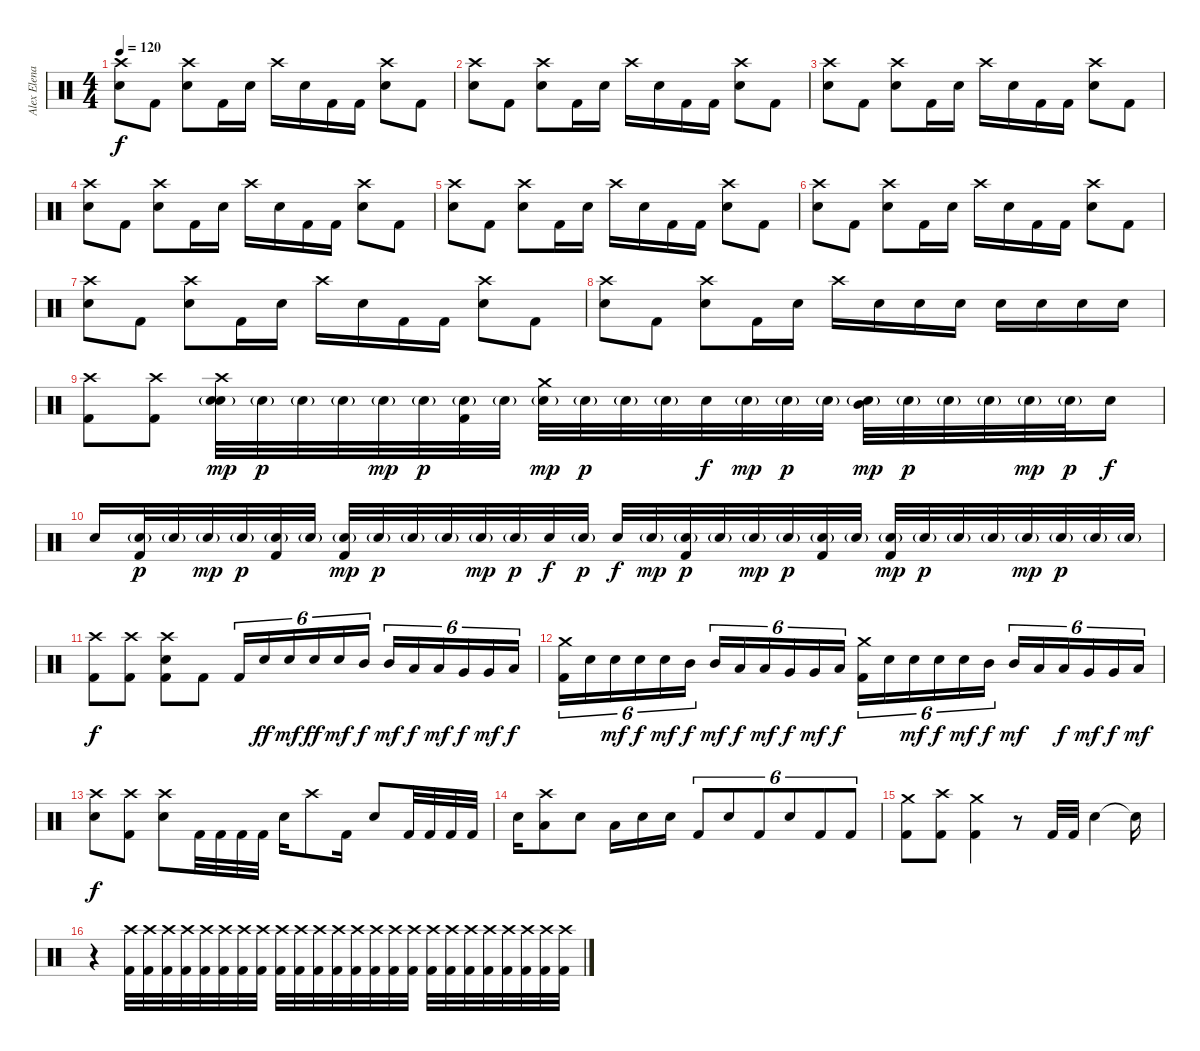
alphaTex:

\track ("Alex Elena (Percussion)" "Alex Elena") {instrument percussion}
\staff {score}
\articulation defaults
\ts (4 4)
\tempo 120
\clef neutral
\ks c
("Crash high (hit)" "Snare (hit) 2").8{dy f} "Kick (hit) 2".8 ("Crash high (hit)" "Snare (hit) 2").8 "Kick (hit) 2".16 "Snare (hit) 2".16 "Crash high (hit)".16 "Snare (hit) 2".16 "Kick (hit) 2".16 "Kick (hit) 2".16 ("Crash high (hit)" "Snare (hit) 2").8 "Kick (hit) 2".8 |
("Crash high (hit)" "Snare (hit) 2").8 "Kick (hit) 2".8 ("Crash high (hit)" "Snare (hit) 2").8 "Kick (hit) 2".16 "Snare (hit) 2".16 "Crash high (hit)".16 "Snare (hit) 2".16 "Kick (hit) 2".16 "Kick (hit) 2".16 ("Crash high (hit)" "Snare (hit) 2").8 "Kick (hit) 2".8 |
("Crash high (hit)" "Snare (hit) 2").8 "Kick (hit) 2".8 ("Crash high (hit)" "Snare (hit) 2").8 "Kick (hit) 2".16 "Snare (hit) 2".16 "Crash high (hit)".16 "Snare (hit) 2".16 "Kick (hit) 2".16 "Kick (hit) 2".16 ("Crash high (hit)" "Snare (hit) 2").8 "Kick (hit) 2".8 |
("Crash high (hit)" "Snare (hit) 2").8 "Kick (hit) 2".8 ("Crash high (hit)" "Snare (hit) 2").8 "Kick (hit) 2".16 "Snare (hit) 2".16 "Crash high (hit)".16 "Snare (hit) 2".16 "Kick (hit) 2".16 "Kick (hit) 2".16 ("Crash high (hit)" "Snare (hit) 2").8 "Kick (hit) 2".8 |
("Crash high (hit)" "Snare (hit) 2").8 "Kick (hit) 2".8 ("Crash high (hit)" "Snare (hit) 2").8 "Kick (hit) 2".16 "Snare (hit) 2".16 "Crash high (hit)".16 "Snare (hit) 2".16 "Kick (hit) 2".16 "Kick (hit) 2".16 ("Crash high (hit)" "Snare (hit) 2").8 "Kick (hit) 2".8 |
("Crash high (hit)" "Snare (hit) 2").8 "Kick (hit) 2".8 ("Crash high (hit)" "Snare (hit) 2").8 "Kick (hit) 2".16 "Snare (hit) 2".16 "Crash high (hit)".16 "Snare (hit) 2".16 "Kick (hit) 2".16 "Kick (hit) 2".16 ("Crash high (hit)" "Snare (hit) 2").8 "Kick (hit) 2".8 |
("Crash high (hit)" "Snare (hit) 2").8 "Kick (hit) 2".8 ("Crash high (hit)" "Snare (hit) 2").8 "Kick (hit) 2".16 "Snare (hit) 2".16 "Crash high (hit)".16 "Snare (hit) 2".16 "Kick (hit) 2".16 "Kick (hit) 2".16 ("Crash high (hit)" "Snare (hit) 2").8 "Kick (hit) 2".8 |
("Crash high (hit)" "Snare (hit) 2").8 "Kick (hit) 2".8 ("Crash high (hit)" "Snare (hit) 2").8 "Kick (hit) 2".16 "Snare (hit) 2".16 "Crash high (hit)".16 "Snare (hit) 2".16 "Snare (hit) 2".16 "Snare (hit) 2".16 "Snare (hit) 2".16 "Snare (hit) 2".16 "Snare (hit) 2".16 "Snare (hit) 2".16 |
("Crash high (hit)" "Kick (hit) 2").8 ("Crash high (hit)" "Kick (hit) 2").8 ("Crash high (hit)" "Snare (hit) 2"{g} "Snare (hit) 2").32{dy mp} "Snare (hit) 2"{g}.32{dy p} "Snare (hit) 2"{g}.32 "Snare (hit) 2"{g}.32 "Snare (hit) 2"{g}.32{dy mp} "Snare (hit) 2"{g}.32{dy p} ("Snare (hit) 2"{g} "Kick (hit) 2").32 "Snare (hit) 2"{g}.32 ("Crash medium (hit)" "Snare (hit) 2"{g}).32{dy mp} "Snare (hit) 2"{g}.32{dy p} "Snare (hit) 2"{g}.32 "Snare (hit) 2"{g}.32 "Snare (hit) 2".32{dy f} "Snare (hit) 2"{g}.32{dy mp} "Snare (hit) 2"{g}.32{dy p} "Snare (hit) 2"{g}.32 ("Snare (hit) 2"{g} "Mid Tom (hit)").32{dy mp} "Snare (hit) 2"{g}.32{dy p} "Snare (hit) 2"{g}.32 "Snare (hit) 2"{g}.32 "Snare (hit) 2"{g}.32{dy mp} "Snare (hit) 2"{g}.32{dy p} "Snare (hit) 2".16{dy f} |
"Snare (hit) 2".16 ("Snare (hit) 2"{g} "Kick (hit) 2").32{dy p} "Snare (hit) 2"{g}.32 "Snare (hit) 2"{g}.32{dy mp} "Snare (hit) 2"{g}.32{dy p} ("Snare (hit) 2"{g} "Kick (hit) 2").32 "Snare (hit) 2"{g}.32 ("Snare (hit) 2"{g} "Kick (hit) 2").32{dy mp} "Snare (hit) 2"{g}.32{dy p} "Snare (hit) 2"{g}.32 "Snare (hit) 2"{g}.32 "Snare (hit) 2"{g}.32{dy mp} "Snare (hit) 2"{g}.32{dy p} "Snare (hit) 2".32{dy f} "Snare (hit) 2"{g}.32{dy p} "Snare (hit) 2".32{dy f} "Snare (hit) 2"{g}.32{dy mp} ("Snare (hit) 2"{g} "Kick (hit) 2").32{dy p} "Snare (hit) 2"{g}.32 "Snare (hit) 2"{g}.32{dy mp} "Snare (hit) 2"{g}.32{dy p} ("Snare (hit) 2"{g} "Kick (hit) 2").32 "Snare (hit) 2"{g}.32 ("Snare (hit) 2"{g} "Kick (hit) 2").32{dy mp} "Snare (hit) 2"{g}.32{dy p} "Snare (hit) 2"{g}.32 "Snare (hit) 2"{g}.32 "Snare (hit) 2"{g}.32{dy mp} "Snare (hit) 2"{g}.32{dy p} "Snare (hit) 2"{g}.32 "Snare (hit) 2"{g}.32 |
("Crash high (hit)" "Kick (hit) 2").8{dy f} ("Crash high (hit)" "Kick (hit) 2").8 ("Crash high (hit)" "Snare (hit) 2" "Kick (hit) 2").8 "Kick (hit) 2".8 "Kick (hit) 2".16{tu (6 4)} "Snare (hit) 2".16{tu (6 4) dy ff} "Snare (hit) 2".16{tu (6 4) dy mf} "Snare (hit) 2".16{tu (6 4) dy ff} "Snare (hit) 2".16{tu (6 4) dy mf} "Mid Tom (hit)".16{tu (6 4) dy f} "Mid Tom (hit)".16{tu (6 4) dy mf} "Low Tom (hit)".16{tu (6 4) dy f} "Low Tom (hit)".16{tu (6 4) dy mf} "Very Low Tom (hit)".16{tu (6 4) dy f} "Very Low Tom (hit)".16{tu (6 4) dy mf} "Low Floor Tom (hit)".16{tu (6 4) dy f} |
("Crash medium (hit)" "Kick (hit) 2").16{tu (6 4)} "Snare (hit) 2".16{tu (6 4)} "Snare (hit) 2".16{tu (6 4) dy mf} "Snare (hit) 2".16{tu (6 4) dy f} "Snare (hit) 2".16{tu (6 4) dy mf} "Mid Tom (hit)".16{tu (6 4) dy f} "Mid Tom (hit)".16{tu (6 4) dy mf} "Low Tom (hit)".16{tu (6 4) dy f} "Low Tom (hit)".16{tu (6 4) dy mf} "Very Low Tom (hit)".16{tu (6 4) dy f} "Very Low Tom (hit)".16{tu (6 4) dy mf} "Low Floor Tom (hit)".16{tu (6 4) dy f} ("Crash medium (hit)" "Kick (hit) 2").16{tu (6 4)} "Snare (hit) 2".16{tu (6 4)} "Snare (hit) 2".16{tu (6 4) dy mf} "Snare (hit) 2".16{tu (6 4) dy f} "Snare (hit) 2".16{tu (6 4) dy mf} "Mid Tom (hit)".16{tu (6 4) dy f} "Mid Tom (hit)".16{tu (6 4) dy mf} "Low Tom (hit)".16{tu (6 4)} "Low Tom (hit)".16{tu (6 4) dy f} "Very Low Tom (hit)".16{tu (6 4) dy mf} "Very Low Tom (hit)".16{tu (6 4) dy f} "Low Floor Tom (hit)".16{tu (6 4) dy mf} |
("Crash high (hit)" "Snare (hit) 2").8{dy f} ("Crash high (hit)" "Kick (hit) 2").8 ("Crash high (hit)" "Snare (hit) 2").8 "Kick (hit) 2".32 "Kick (hit) 2".32 "Kick (hit) 2".32 "Kick (hit) 2".32 "Snare (hit) 2".16 "Crash high (hit)".8 "Kick (hit) 2".16 "Snare (hit) 2".8 "Kick (hit) 2".32 "Kick (hit) 2".32 "Kick (hit) 2".32 "Kick (hit) 2".32 |
"Snare (hit) 2".16 ("Crash high (hit)" "Low Floor Tom (hit)").8 "Snare (hit) 2".8 "Low Tom (hit)".16 "Snare (hit) 2".16 "Snare (hit) 2".16 "Kick (hit) 2".8{tu (6 4)} "Snare (hit) 2".8{tu (6 4)} "Kick (hit) 2".8{tu (6 4)} "Snare (hit) 2".8{tu (6 4)} "Kick (hit) 2".8{tu (6 4)} "Kick (hit) 2".8{tu (6 4)} |
("Crash medium (hit)" "Kick (hit) 2").8 ("Crash high (hit)" "Kick (hit) 2").8 ("Crash medium (hit)" "Kick (hit) 2").4 r.8 "Kick (hit) 2".32 "Kick (hit) 2".32 "Snare (hit) 2".4 "Snare (hit)"{t}.16 |
r.4 ("Crash high (hit)" "Kick (hit) 2").32 ("Crash high (hit)" "Kick (hit) 2").32 ("Crash high (hit)" "Kick (hit) 2").32 ("Crash high (hit)" "Kick (hit) 2").32 ("Crash high (hit)" "Kick (hit) 2").32 ("Crash high (hit)" "Kick (hit) 2").32 ("Crash high (hit)" "Kick (hit) 2").32 ("Crash high (hit)" "Kick (hit) 2").32 ("Crash high (hit)" "Kick (hit) 2").32 ("Crash high (hit)" "Kick (hit) 2").32 ("Crash high (hit)" "Kick (hit) 2").32 ("Crash high (hit)" "Kick (hit) 2").32 ("Crash high (hit)" "Kick (hit) 2").32 ("Crash high (hit)" "Kick (hit) 2").32 ("Crash high (hit)" "Kick (hit) 2").32 ("Crash high (hit)" "Kick (hit) 2").32 ("Crash high (hit)" "Kick (hit) 2").32 ("Crash high (hit)" "Kick (hit) 2").32 ("Crash high (hit)" "Kick (hit) 2").32 ("Crash high (hit)" "Kick (hit) 2").32 ("Crash high (hit)" "Kick (hit) 2").32 ("Crash high (hit)" "Kick (hit) 2").32 ("Crash high (hit)" "Kick (hit) 2").32 ("Crash high (hit)" "Kick (hit) 2").32
